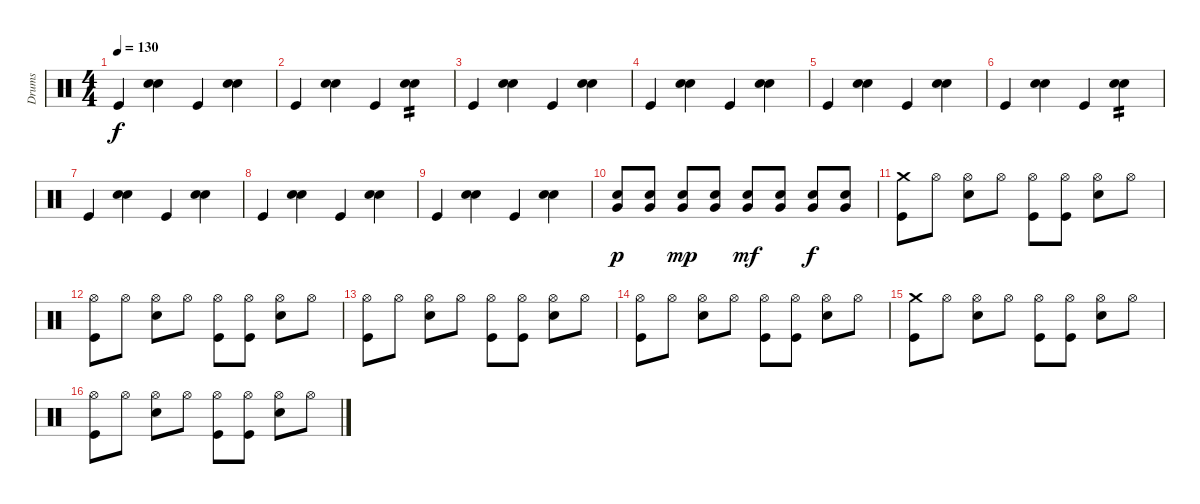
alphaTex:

\track ("Drums" "Drums") {instrument percussion}
\staff {score}
\articulation defaults
\ts (4 4)
\tempo 130
\clef neutral
\ks c "Kick (hit)".4{dy f}
("Snare (hit) 2" "Hand Clap (hit)").4 "Kick (hit)".4 ("Snare (hit) 2" "Hand Clap (hit)").4 |
"Kick (hit)".4 ("Snare (hit) 2" "Hand Clap (hit)").4 "Kick (hit)".4 ("Snare (hit) 2" "Hand Clap (hit)").4{tp 2} |
"Kick (hit)".4 ("Snare (hit) 2" "Hand Clap (hit)").4 "Kick (hit)".4 ("Snare (hit) 2" "Hand Clap (hit)").4 |
"Kick (hit)".4 ("Snare (hit) 2" "Hand Clap (hit)").4 "Kick (hit)".4 ("Snare (hit) 2" "Hand Clap (hit)").4 |
"Kick (hit)".4 ("Snare (hit) 2" "Hand Clap (hit)").4 "Kick (hit)".4 ("Snare (hit) 2" "Hand Clap (hit)").4 |
"Kick (hit)".4 ("Snare (hit) 2" "Hand Clap (hit)").4 "Kick (hit)".4 ("Snare (hit) 2" "Hand Clap (hit)").4{tp 2} |
"Kick (hit)".4 ("Snare (hit) 2" "Hand Clap (hit)").4 "Kick (hit)".4 ("Snare (hit) 2" "Hand Clap (hit)").4 |
"Kick (hit)".4 ("Snare (hit) 2" "Hand Clap (hit)").4 "Kick (hit)".4 ("Snare (hit) 2" "Hand Clap (hit)").4 |
"Kick (hit)".4 ("Snare (hit) 2" "Hand Clap (hit)").4 "Kick (hit)".4 ("Snare (hit) 2" "Hand Clap (hit)").4 |
("Snare (hit) 2" "Very Low Tom (hit)").8{dy p} ("Snare (hit) 2" "Very Low Tom (hit)").8 ("Snare (hit) 2" "Very Low Tom (hit)").8{dy mp} ("Snare (hit) 2" "Very Low Tom (hit)").8 ("Snare (hit) 2" "Very Low Tom (hit)").8{dy mf} ("Snare (hit) 2" "Very Low Tom (hit)").8 ("Snare (hit) 2" "Very Low Tom (hit)").8{dy f} ("Snare (hit) 2" "Very Low Tom (hit)").8 |
("Crash medium (hit)" "Kick (hit)").8 "Hi-Hat (open)".8 ("Hi-Hat (open)" "Snare (hit) 2").8 "Hi-Hat (open)".8 ("Hi-Hat (open)" "Kick (hit)").8 ("Hi-Hat (open)" "Kick (hit)").8 ("Hi-Hat (open)" "Snare (hit) 2").8 "Hi-Hat (open)".8 |
("Hi-Hat (open)" "Kick (hit)").8 "Hi-Hat (open)".8 ("Hi-Hat (open)" "Snare (hit) 2").8 "Hi-Hat (open)".8 ("Hi-Hat (open)" "Kick (hit)").8 ("Hi-Hat (open)" "Kick (hit)").8 ("Hi-Hat (open)" "Snare (hit) 2").8 "Hi-Hat (open)".8 |
("Hi-Hat (open)" "Kick (hit)").8 "Hi-Hat (open)".8 ("Hi-Hat (open)" "Snare (hit) 2").8 "Hi-Hat (open)".8 ("Hi-Hat (open)" "Kick (hit)").8 ("Hi-Hat (open)" "Kick (hit)").8 ("Hi-Hat (open)" "Snare (hit) 2").8 "Hi-Hat (open)".8 |
("Hi-Hat (open)" "Kick (hit)").8 "Hi-Hat (open)".8 ("Hi-Hat (open)" "Snare (hit) 2").8 "Hi-Hat (open)".8 ("Hi-Hat (open)" "Kick (hit)").8 ("Hi-Hat (open)" "Kick (hit)").8 ("Hi-Hat (open)" "Snare (hit) 2").8 "Hi-Hat (open)".8 |
("Crash medium (hit)" "Kick (hit)").8 "Hi-Hat (open)".8 ("Hi-Hat (open)" "Snare (hit) 2").8 "Hi-Hat (open)".8 ("Hi-Hat (open)" "Kick (hit)").8 ("Hi-Hat (open)" "Kick (hit)").8 ("Hi-Hat (open)" "Snare (hit) 2").8 "Hi-Hat (open)".8 |
("Hi-Hat (open)" "Kick (hit)").8 "Hi-Hat (open)".8 ("Hi-Hat (open)" "Snare (hit) 2").8 "Hi-Hat (open)".8 ("Hi-Hat (open)" "Kick (hit)").8 ("Hi-Hat (open)" "Kick (hit)").8 ("Hi-Hat (open)" "Snare (hit) 2").8 "Hi-Hat (open)".8
